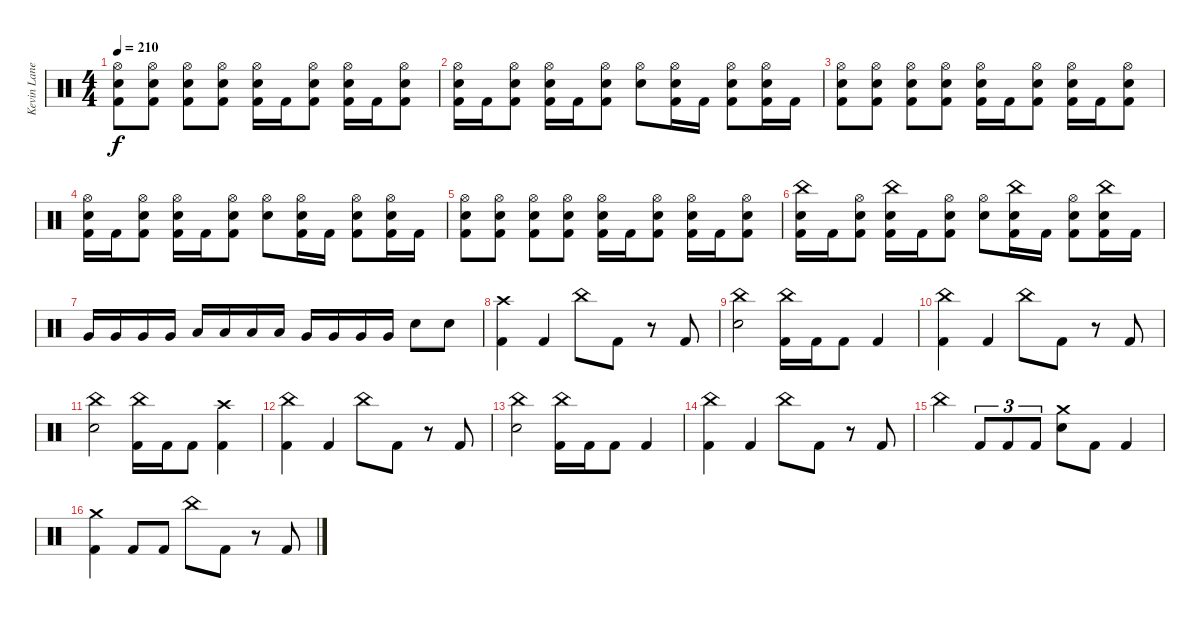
\track ("Kevin Lane (Drums)" "Kevin Lane") {instrument percussion}
\staff {score}
\articulation defaults
\ts (4 4)
\tempo 210
\clef neutral
\ks c
("Hi-Hat (open)" "Snare (hit) 2" "Kick (hit) 2").8{dy f} ("Hi-Hat (open)" "Snare (hit) 2" "Kick (hit) 2").8 ("Hi-Hat (open)" "Snare (hit) 2" "Kick (hit) 2").8 ("Hi-Hat (open)" "Snare (hit) 2" "Kick (hit) 2").8 ("Hi-Hat (open)" "Snare (hit) 2" "Kick (hit) 2").16 "Kick (hit) 2".16 ("Hi-Hat (open)" "Snare (hit) 2" "Kick (hit) 2").8 ("Hi-Hat (open)" "Snare (hit) 2" "Kick (hit) 2").16 "Kick (hit) 2".16 ("Hi-Hat (open)" "Snare (hit) 2" "Kick (hit) 2").8 |
("Hi-Hat (open)" "Snare (hit) 2" "Kick (hit) 2").16 "Kick (hit) 2".16 ("Hi-Hat (open)" "Snare (hit) 2" "Kick (hit) 2").8 ("Hi-Hat (open)" "Snare (hit) 2" "Kick (hit) 2").16 "Kick (hit) 2".16 ("Hi-Hat (open)" "Snare (hit) 2" "Kick (hit) 2").8 ("Hi-Hat (open)" "Snare (hit) 2").8 ("Hi-Hat (open)" "Snare (hit) 2" "Kick (hit) 2").16 "Kick (hit) 2".16 ("Hi-Hat (open)" "Snare (hit) 2" "Kick (hit) 2").8 ("Hi-Hat (open)" "Snare (hit) 2" "Kick (hit) 2").16 "Kick (hit) 2".16 |
("Hi-Hat (open)" "Snare (hit) 2" "Kick (hit) 2").8 ("Hi-Hat (open)" "Snare (hit) 2" "Kick (hit) 2").8 ("Hi-Hat (open)" "Snare (hit) 2" "Kick (hit) 2").8 ("Hi-Hat (open)" "Snare (hit) 2" "Kick (hit) 2").8 ("Hi-Hat (open)" "Snare (hit) 2" "Kick (hit) 2").16 "Kick (hit) 2".16 ("Hi-Hat (open)" "Snare (hit) 2" "Kick (hit) 2").8 ("Hi-Hat (open)" "Snare (hit) 2" "Kick (hit) 2").16 "Kick (hit) 2".16 ("Hi-Hat (open)" "Snare (hit) 2" "Kick (hit) 2").8 |
("Hi-Hat (open)" "Snare (hit) 2" "Kick (hit) 2").16 "Kick (hit) 2".16 ("Hi-Hat (open)" "Snare (hit) 2" "Kick (hit) 2").8 ("Hi-Hat (open)" "Snare (hit) 2" "Kick (hit) 2").16 "Kick (hit) 2".16 ("Hi-Hat (open)" "Snare (hit) 2" "Kick (hit) 2").8 ("Hi-Hat (open)" "Snare (hit) 2").8 ("Hi-Hat (open)" "Snare (hit) 2" "Kick (hit) 2").16 "Kick (hit) 2".16 ("Hi-Hat (open)" "Snare (hit) 2" "Kick (hit) 2").8 ("Hi-Hat (open)" "Snare (hit) 2" "Kick (hit) 2").16 "Kick (hit) 2".16 |
("Hi-Hat (open)" "Snare (hit) 2" "Kick (hit) 2").8 ("Hi-Hat (open)" "Snare (hit) 2" "Kick (hit) 2").8 ("Hi-Hat (open)" "Snare (hit) 2" "Kick (hit) 2").8 ("Hi-Hat (open)" "Snare (hit) 2" "Kick (hit) 2").8 ("Hi-Hat (open)" "Snare (hit) 2" "Kick (hit) 2").16 "Kick (hit) 2".16 ("Hi-Hat (open)" "Snare (hit) 2" "Kick (hit) 2").8 ("Hi-Hat (open)" "Snare (hit) 2" "Kick (hit) 2").16 "Kick (hit) 2".16 ("Hi-Hat (open)" "Snare (hit) 2" "Kick (hit) 2").8 |
("China (hit)" "Snare (hit) 2" "Kick (hit) 2").16 "Kick (hit) 2".16 ("Hi-Hat (open)" "Snare (hit) 2" "Kick (hit) 2").8 ("China (hit)" "Snare (hit) 2" "Kick (hit) 2").16 "Kick (hit) 2".16 ("Hi-Hat (open)" "Snare (hit) 2" "Kick (hit) 2").8 ("Hi-Hat (open)" "Snare (hit) 2").8 ("China (hit)" "Snare (hit) 2" "Kick (hit) 2").16 "Kick (hit) 2".16 ("Hi-Hat (open)" "Snare (hit) 2" "Kick (hit) 2").8 ("China (hit)" "Snare (hit) 2" "Kick (hit) 2").16 "Kick (hit) 2".16 |
"Very Low Tom (hit)".16 "Very Low Tom (hit)".16 "Very Low Tom (hit)".16 "Very Low Tom (hit)".16 "Low Tom (hit)".16 "Low Tom (hit)".16 "Low Tom (hit)".16 "Low Tom (hit)".16 "Very Low Tom (hit)".16 "Very Low Tom (hit)".16 "Very Low Tom (hit)".16 "Very Low Tom (hit)".16 "Snare (hit) 2".8 "Snare (hit) 2".8 |
("Crash high (hit)" "Kick (hit) 2").4 "Kick (hit) 2".4 "China (hit)".8 "Kick (hit) 2".8 r.8 "Kick (hit) 2".8 |
("Snare (hit) 2" "China (hit)").2 ("China (hit)" "Kick (hit) 2").16 "Kick (hit) 2".16 "Kick (hit) 2".8 "Kick (hit) 2".4 |
("China (hit)" "Kick (hit) 2").4 "Kick (hit) 2".4 "China (hit)".8 "Kick (hit) 2".8 r.8 "Kick (hit) 2".8 |
("Snare (hit) 2" "China (hit)").2 ("China (hit)" "Kick (hit) 2").16 "Kick (hit) 2".16 "Kick (hit) 2".8 ("Crash high (hit)" "Kick (hit) 2").4 |
("China (hit)" "Kick (hit) 2").4 "Kick (hit) 2".4 "China (hit)".8 "Kick (hit) 2".8 r.8 "Kick (hit) 2".8 |
("Snare (hit) 2" "China (hit)").2 ("China (hit)" "Kick (hit) 2").16 "Kick (hit) 2".16 "Kick (hit) 2".8 "Kick (hit) 2".4 |
("China (hit)" "Kick (hit) 2").4 "Kick (hit) 2".4 "China (hit)".8 "Kick (hit) 2".8 r.8 "Kick (hit) 2".8 |
"China (hit)".4 "Kick (hit) 2".8{tu (3 2)} "Kick (hit) 2".8{tu (3 2)} "Kick (hit) 2".8{tu (3 2)} ("Crash medium (hit)" "Snare (hit) 2").8 "Kick (hit) 2".8 "Kick (hit) 2".4 |
("Crash medium (hit)" "Kick (hit) 2").4 "Kick (hit) 2".8 "Kick (hit) 2".8 "China (hit)".8 "Kick (hit) 2".8 r.8 "Kick (hit) 2".8
